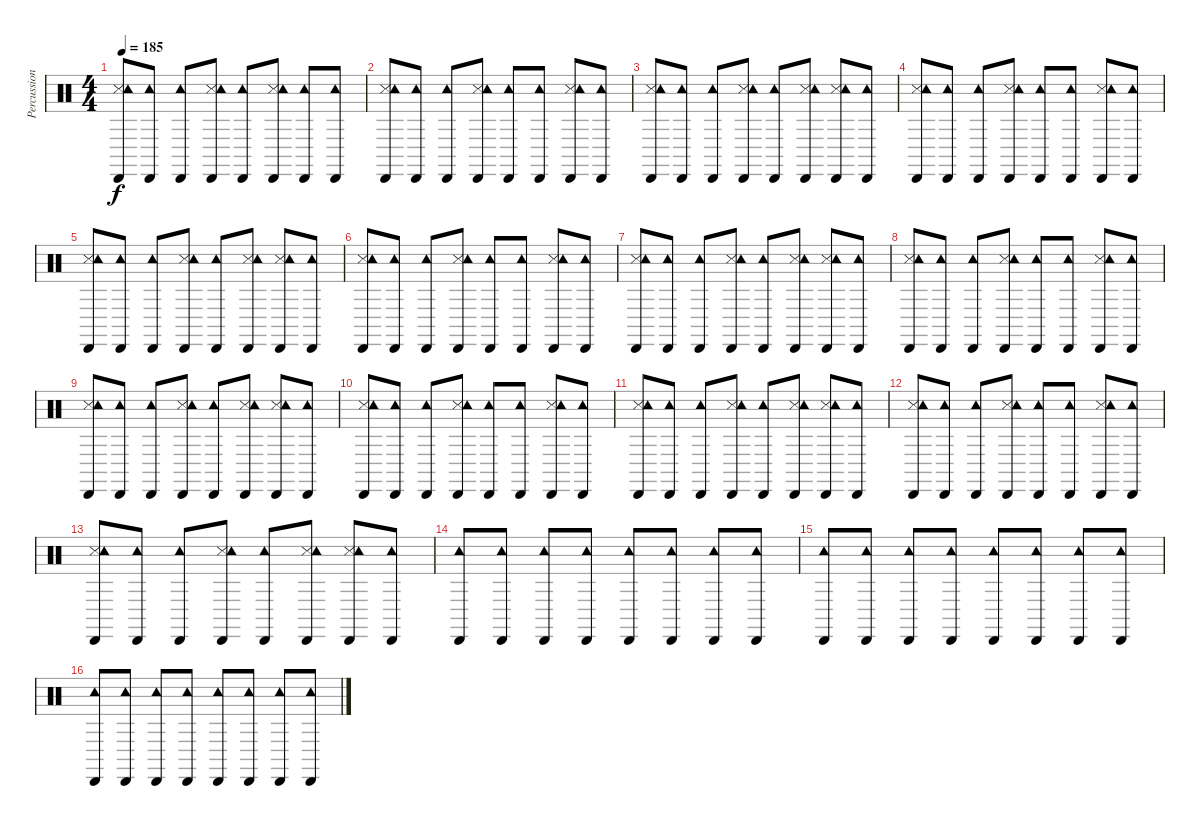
\track ("Percussion" "Percussion") {instrument percussion}
\staff {score}
\articulation defaults
\ts (4 4)
\tempo 185
\clef neutral
\ks c
("Snare (side stick) 3" "Cabasa (hit)" "Tambourine (hit)").8{dy f} ("Cabasa (hit)" "Tambourine (hit)").8 ("Cabasa (hit)" "Tambourine (hit)").8 ("Snare (side stick) 3" "Cabasa (hit)" "Tambourine (hit)").8 ("Cabasa (hit)" "Tambourine (hit)").8 ("Snare (side stick) 3" "Cabasa (hit)" "Tambourine (hit)").8 ("Cabasa (hit)" "Tambourine (hit)").8 ("Cabasa (hit)" "Tambourine (hit)").8 |
("Snare (side stick) 3" "Cabasa (hit)" "Tambourine (hit)").8 ("Cabasa (hit)" "Tambourine (hit)").8 ("Cabasa (hit)" "Tambourine (hit)").8 ("Snare (side stick) 3" "Cabasa (hit)" "Tambourine (hit)").8 ("Cabasa (hit)" "Tambourine (hit)").8 ("Cabasa (hit)" "Tambourine (hit)").8 ("Snare (side stick) 3" "Cabasa (hit)" "Tambourine (hit)").8 ("Cabasa (hit)" "Tambourine (hit)").8 |
("Snare (side stick) 3" "Cabasa (hit)" "Tambourine (hit)").8 ("Cabasa (hit)" "Tambourine (hit)").8 ("Cabasa (hit)" "Tambourine (hit)").8 ("Snare (side stick) 3" "Cabasa (hit)" "Tambourine (hit)").8 ("Cabasa (hit)" "Tambourine (hit)").8 ("Snare (side stick) 3" "Cabasa (hit)" "Tambourine (hit)").8 ("Snare (side stick) 3" "Cabasa (hit)" "Tambourine (hit)").8 ("Cabasa (hit)" "Tambourine (hit)").8 |
("Snare (side stick) 3" "Cabasa (hit)" "Tambourine (hit)").8 ("Cabasa (hit)" "Tambourine (hit)").8 ("Cabasa (hit)" "Tambourine (hit)").8 ("Snare (side stick) 3" "Cabasa (hit)" "Tambourine (hit)").8 ("Cabasa (hit)" "Tambourine (hit)").8 ("Cabasa (hit)" "Tambourine (hit)").8 ("Snare (side stick) 3" "Cabasa (hit)" "Tambourine (hit)").8 ("Cabasa (hit)" "Tambourine (hit)").8 |
("Snare (side stick) 3" "Cabasa (hit)" "Tambourine (hit)").8 ("Cabasa (hit)" "Tambourine (hit)").8 ("Cabasa (hit)" "Tambourine (hit)").8 ("Snare (side stick) 3" "Cabasa (hit)" "Tambourine (hit)").8 ("Cabasa (hit)" "Tambourine (hit)").8 ("Snare (side stick) 3" "Cabasa (hit)" "Tambourine (hit)").8 ("Snare (side stick) 3" "Cabasa (hit)" "Tambourine (hit)").8 ("Cabasa (hit)" "Tambourine (hit)").8 |
("Snare (side stick) 3" "Cabasa (hit)" "Tambourine (hit)").8 ("Cabasa (hit)" "Tambourine (hit)").8 ("Cabasa (hit)" "Tambourine (hit)").8 ("Snare (side stick) 3" "Cabasa (hit)" "Tambourine (hit)").8 ("Cabasa (hit)" "Tambourine (hit)").8 ("Cabasa (hit)" "Tambourine (hit)").8 ("Snare (side stick) 3" "Cabasa (hit)" "Tambourine (hit)").8 ("Cabasa (hit)" "Tambourine (hit)").8 |
("Snare (side stick) 3" "Cabasa (hit)" "Tambourine (hit)").8 ("Cabasa (hit)" "Tambourine (hit)").8 ("Cabasa (hit)" "Tambourine (hit)").8 ("Snare (side stick) 3" "Cabasa (hit)" "Tambourine (hit)").8 ("Cabasa (hit)" "Tambourine (hit)").8 ("Snare (side stick) 3" "Cabasa (hit)" "Tambourine (hit)").8 ("Snare (side stick) 3" "Cabasa (hit)" "Tambourine (hit)").8 ("Cabasa (hit)" "Tambourine (hit)").8 |
("Snare (side stick) 3" "Cabasa (hit)" "Tambourine (hit)").8 ("Cabasa (hit)" "Tambourine (hit)").8 ("Cabasa (hit)" "Tambourine (hit)").8 ("Snare (side stick) 3" "Cabasa (hit)" "Tambourine (hit)").8 ("Cabasa (hit)" "Tambourine (hit)").8 ("Cabasa (hit)" "Tambourine (hit)").8 ("Snare (side stick) 3" "Cabasa (hit)" "Tambourine (hit)").8 ("Cabasa (hit)" "Tambourine (hit)").8 |
("Snare (side stick) 3" "Cabasa (hit)" "Tambourine (hit)").8 ("Cabasa (hit)" "Tambourine (hit)").8 ("Cabasa (hit)" "Tambourine (hit)").8 ("Snare (side stick) 3" "Cabasa (hit)" "Tambourine (hit)").8 ("Cabasa (hit)" "Tambourine (hit)").8 ("Snare (side stick) 3" "Cabasa (hit)" "Tambourine (hit)").8 ("Snare (side stick) 3" "Cabasa (hit)" "Tambourine (hit)").8 ("Cabasa (hit)" "Tambourine (hit)").8 |
("Snare (side stick) 3" "Cabasa (hit)" "Tambourine (hit)").8 ("Cabasa (hit)" "Tambourine (hit)").8 ("Cabasa (hit)" "Tambourine (hit)").8 ("Snare (side stick) 3" "Cabasa (hit)" "Tambourine (hit)").8 ("Cabasa (hit)" "Tambourine (hit)").8 ("Cabasa (hit)" "Tambourine (hit)").8 ("Snare (side stick) 3" "Cabasa (hit)" "Tambourine (hit)").8 ("Cabasa (hit)" "Tambourine (hit)").8 |
("Snare (side stick) 3" "Cabasa (hit)" "Tambourine (hit)").8 ("Cabasa (hit)" "Tambourine (hit)").8 ("Cabasa (hit)" "Tambourine (hit)").8 ("Snare (side stick) 3" "Cabasa (hit)" "Tambourine (hit)").8 ("Cabasa (hit)" "Tambourine (hit)").8 ("Snare (side stick) 3" "Cabasa (hit)" "Tambourine (hit)").8 ("Snare (side stick) 3" "Cabasa (hit)" "Tambourine (hit)").8 ("Cabasa (hit)" "Tambourine (hit)").8 |
("Snare (side stick) 3" "Cabasa (hit)" "Tambourine (hit)").8 ("Cabasa (hit)" "Tambourine (hit)").8 ("Cabasa (hit)" "Tambourine (hit)").8 ("Snare (side stick) 3" "Cabasa (hit)" "Tambourine (hit)").8 ("Cabasa (hit)" "Tambourine (hit)").8 ("Cabasa (hit)" "Tambourine (hit)").8 ("Snare (side stick) 3" "Cabasa (hit)" "Tambourine (hit)").8 ("Cabasa (hit)" "Tambourine (hit)").8 |
("Snare (side stick) 3" "Cabasa (hit)" "Tambourine (hit)").8 ("Cabasa (hit)" "Tambourine (hit)").8 ("Cabasa (hit)" "Tambourine (hit)").8 ("Snare (side stick) 3" "Cabasa (hit)" "Tambourine (hit)").8 ("Cabasa (hit)" "Tambourine (hit)").8 ("Snare (side stick) 3" "Cabasa (hit)" "Tambourine (hit)").8 ("Snare (side stick) 3" "Cabasa (hit)" "Tambourine (hit)").8 ("Cabasa (hit)" "Tambourine (hit)").8 |
("Cabasa (hit)" "Tambourine (hit)").8 ("Cabasa (hit)" "Tambourine (hit)").8 ("Cabasa (hit)" "Tambourine (hit)").8 ("Cabasa (hit)" "Tambourine (hit)").8 ("Cabasa (hit)" "Tambourine (hit)").8 ("Cabasa (hit)" "Tambourine (hit)").8 ("Cabasa (hit)" "Tambourine (hit)").8 ("Cabasa (hit)" "Tambourine (hit)").8 |
("Cabasa (hit)" "Tambourine (hit)").8 ("Cabasa (hit)" "Tambourine (hit)").8 ("Cabasa (hit)" "Tambourine (hit)").8 ("Cabasa (hit)" "Tambourine (hit)").8 ("Cabasa (hit)" "Tambourine (hit)").8 ("Cabasa (hit)" "Tambourine (hit)").8 ("Cabasa (hit)" "Tambourine (hit)").8 ("Cabasa (hit)" "Tambourine (hit)").8 |
("Cabasa (hit)" "Tambourine (hit)").8 ("Cabasa (hit)" "Tambourine (hit)").8 ("Cabasa (hit)" "Tambourine (hit)").8 ("Cabasa (hit)" "Tambourine (hit)").8 ("Cabasa (hit)" "Tambourine (hit)").8 ("Cabasa (hit)" "Tambourine (hit)").8 ("Cabasa (hit)" "Tambourine (hit)").8 ("Cabasa (hit)" "Tambourine (hit)").8
